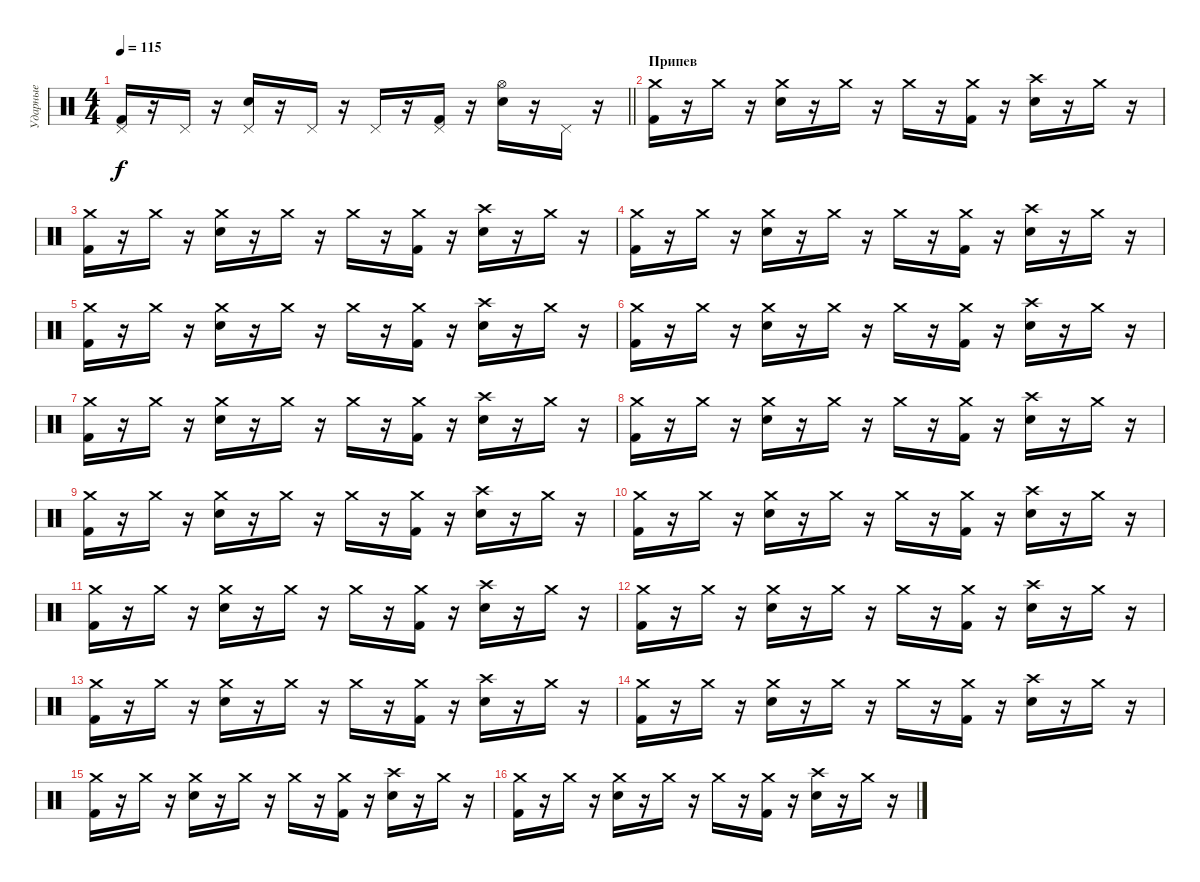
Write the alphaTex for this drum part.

\track ("Ударные" "Ударные") {instrument percussion}
\staff {score}
\articulation defaults
\ts (4 4)
\tempo 115
\clef neutral
\barLineRight lightlight
\ks c
("Pedal Hi-Hat (hit)" "Kick (hit) 2").16{dy f} r.16 "Pedal Hi-Hat (hit)".16 r.16 ("Pedal Hi-Hat (hit)" "Electric Snare (hit)").16 r.16 "Pedal Hi-Hat (hit)".16 r.16 "Pedal Hi-Hat (hit)".16 r.16 ("Pedal Hi-Hat (hit)" "Kick (hit) 2").16 r.16 ("Hi-Hat (open)" "Electric Snare (hit)").16 r.16 "Pedal Hi-Hat (hit)".16 r.16 |
\section ("" "Припев")
("Crash medium (hit)" "Kick (hit) 2").16 r.16 "Crash medium (hit)".16 r.16 ("Crash medium (hit)" "Electric Snare (hit)").16 r.16 "Crash medium (hit)".16 r.16 "Crash medium (hit)".16 r.16 ("Crash medium (hit)" "Kick (hit) 2").16 r.16 ("Crash high (hit)" "Electric Snare (hit)").16 r.16 "Crash medium (hit)".16 r.16 |
("Crash medium (hit)" "Kick (hit) 2").16 r.16 "Crash medium (hit)".16 r.16 ("Crash medium (hit)" "Electric Snare (hit)").16 r.16 "Crash medium (hit)".16 r.16 "Crash medium (hit)".16 r.16 ("Crash medium (hit)" "Kick (hit) 2").16 r.16 ("Crash high (hit)" "Electric Snare (hit)").16 r.16 "Crash medium (hit)".16 r.16 |
("Crash medium (hit)" "Kick (hit) 2").16 r.16 "Crash medium (hit)".16 r.16 ("Crash medium (hit)" "Electric Snare (hit)").16 r.16 "Crash medium (hit)".16 r.16 "Crash medium (hit)".16 r.16 ("Crash medium (hit)" "Kick (hit) 2").16 r.16 ("Crash high (hit)" "Electric Snare (hit)").16 r.16 "Crash medium (hit)".16 r.16 |
("Crash medium (hit)" "Kick (hit) 2").16 r.16 "Crash medium (hit)".16 r.16 ("Crash medium (hit)" "Electric Snare (hit)").16 r.16 "Crash medium (hit)".16 r.16 "Crash medium (hit)".16 r.16 ("Crash medium (hit)" "Kick (hit) 2").16 r.16 ("Crash high (hit)" "Electric Snare (hit)").16 r.16 "Crash medium (hit)".16 r.16 |
("Crash medium (hit)" "Kick (hit) 2").16 r.16 "Crash medium (hit)".16 r.16 ("Crash medium (hit)" "Electric Snare (hit)").16 r.16 "Crash medium (hit)".16 r.16 "Crash medium (hit)".16 r.16 ("Crash medium (hit)" "Kick (hit) 2").16 r.16 ("Crash high (hit)" "Electric Snare (hit)").16 r.16 "Crash medium (hit)".16 r.16 |
("Crash medium (hit)" "Kick (hit) 2").16 r.16 "Crash medium (hit)".16 r.16 ("Crash medium (hit)" "Electric Snare (hit)").16 r.16 "Crash medium (hit)".16 r.16 "Crash medium (hit)".16 r.16 ("Crash medium (hit)" "Kick (hit) 2").16 r.16 ("Crash high (hit)" "Electric Snare (hit)").16 r.16 "Crash medium (hit)".16 r.16 |
("Crash medium (hit)" "Kick (hit) 2").16 r.16 "Crash medium (hit)".16 r.16 ("Crash medium (hit)" "Electric Snare (hit)").16 r.16 "Crash medium (hit)".16 r.16 "Crash medium (hit)".16 r.16 ("Crash medium (hit)" "Kick (hit) 2").16 r.16 ("Crash high (hit)" "Electric Snare (hit)").16 r.16 "Crash medium (hit)".16 r.16 |
("Crash medium (hit)" "Kick (hit) 2").16 r.16 "Crash medium (hit)".16 r.16 ("Crash medium (hit)" "Electric Snare (hit)").16 r.16 "Crash medium (hit)".16 r.16 "Crash medium (hit)".16 r.16 ("Crash medium (hit)" "Kick (hit) 2").16 r.16 ("Crash high (hit)" "Electric Snare (hit)").16 r.16 "Crash medium (hit)".16 r.16 |
("Crash medium (hit)" "Kick (hit) 2").16 r.16 "Crash medium (hit)".16 r.16 ("Crash medium (hit)" "Electric Snare (hit)").16 r.16 "Crash medium (hit)".16 r.16 "Crash medium (hit)".16 r.16 ("Crash medium (hit)" "Kick (hit) 2").16 r.16 ("Crash high (hit)" "Electric Snare (hit)").16 r.16 "Crash medium (hit)".16 r.16 |
("Crash medium (hit)" "Kick (hit) 2").16 r.16 "Crash medium (hit)".16 r.16 ("Crash medium (hit)" "Electric Snare (hit)").16 r.16 "Crash medium (hit)".16 r.16 "Crash medium (hit)".16 r.16 ("Crash medium (hit)" "Kick (hit) 2").16 r.16 ("Crash high (hit)" "Electric Snare (hit)").16 r.16 "Crash medium (hit)".16 r.16 |
("Crash medium (hit)" "Kick (hit) 2").16 r.16 "Crash medium (hit)".16 r.16 ("Crash medium (hit)" "Electric Snare (hit)").16 r.16 "Crash medium (hit)".16 r.16 "Crash medium (hit)".16 r.16 ("Crash medium (hit)" "Kick (hit) 2").16 r.16 ("Crash high (hit)" "Electric Snare (hit)").16 r.16 "Crash medium (hit)".16 r.16 |
("Crash medium (hit)" "Kick (hit) 2").16 r.16 "Crash medium (hit)".16 r.16 ("Crash medium (hit)" "Electric Snare (hit)").16 r.16 "Crash medium (hit)".16 r.16 "Crash medium (hit)".16 r.16 ("Crash medium (hit)" "Kick (hit) 2").16 r.16 ("Crash high (hit)" "Electric Snare (hit)").16 r.16 "Crash medium (hit)".16 r.16 |
("Crash medium (hit)" "Kick (hit) 2").16 r.16 "Crash medium (hit)".16 r.16 ("Crash medium (hit)" "Electric Snare (hit)").16 r.16 "Crash medium (hit)".16 r.16 "Crash medium (hit)".16 r.16 ("Crash medium (hit)" "Kick (hit) 2").16 r.16 ("Crash high (hit)" "Electric Snare (hit)").16 r.16 "Crash medium (hit)".16 r.16 |
("Crash medium (hit)" "Kick (hit) 2").16 r.16 "Crash medium (hit)".16 r.16 ("Crash medium (hit)" "Electric Snare (hit)").16 r.16 "Crash medium (hit)".16 r.16 "Crash medium (hit)".16 r.16 ("Crash medium (hit)" "Kick (hit) 2").16 r.16 ("Crash high (hit)" "Electric Snare (hit)").16 r.16 "Crash medium (hit)".16 r.16 |
("Crash medium (hit)" "Kick (hit) 2").16 r.16 "Crash medium (hit)".16 r.16 ("Crash medium (hit)" "Electric Snare (hit)").16 r.16 "Crash medium (hit)".16 r.16 "Crash medium (hit)".16 r.16 ("Crash medium (hit)" "Kick (hit) 2").16 r.16 ("Crash high (hit)" "Electric Snare (hit)").16 r.16 "Crash medium (hit)".16 r.16
